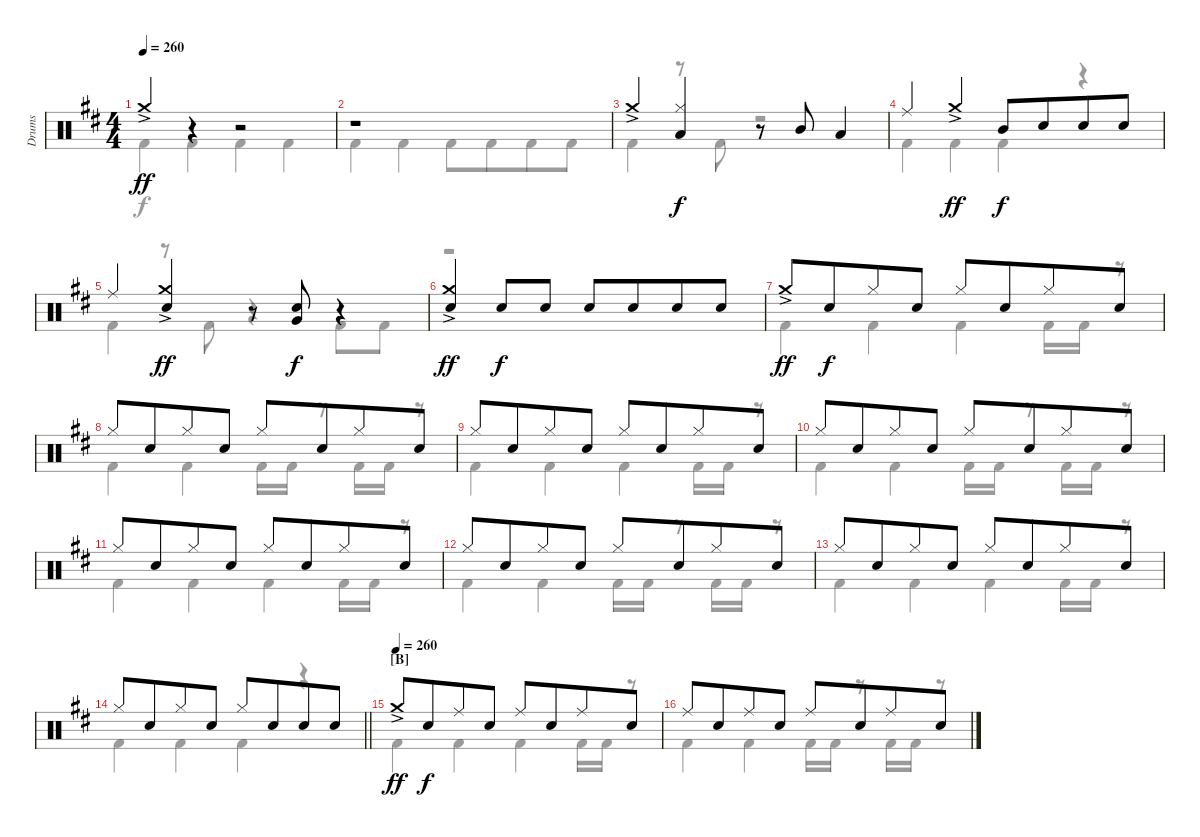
\track ("Drums" "Drums") {instrument percussion}
\staff {score}
\articulation defaults
\voice
\ts (4 4)
\tempo 260
\clef neutral
\ks bminor "Crash medium (hit)"{ac}.4{dy ff}
r.4 r.2 |
r.1 |
"Crash medium (hit)"{ac}.4 ("Hi-Hat (closed)" "Low Tom (hit)").4{dy f} r.8 "Mid Tom (hit)".8 "Low Tom (hit)".4 |
"Ride (middle)".4 "Crash medium (hit)"{ac}.4{dy ff} "Mid Tom (hit)".8{dy f} "Snare (hit) 2".8{beam merge} "Snare (hit) 2".8 "Snare (hit) 2".8 |
"Ride (middle)".4 ("Crash medium (hit)"{ac} "Snare (hit) 2").4{dy ff} r.8 ("Snare (hit) 2" "Very Low Tom (hit)").8{dy f} r.4 |
("Crash medium (hit)"{ac} "Snare (hit) 2").4{dy ff} "Snare (hit) 2".8{dy f} "Snare (hit) 2".8 "Snare (hit) 2".8 "Snare (hit) 2".8{beam merge} "Snare (hit) 2".8 "Snare (hit) 2".8 |
"Crash medium (hit)"{ac}.8{dy ff} "Snare (hit) 2".8{dy f beam merge} "Hi-Hat (closed)".8 "Snare (hit) 2".8 "Hi-Hat (closed)".8 "Snare (hit) 2".8{beam merge} "Hi-Hat (closed)".8 "Snare (hit) 2".8 |
"Hi-Hat (closed)".8 "Snare (hit) 2".8{beam merge} "Hi-Hat (closed)".8 "Snare (hit) 2".8 "Hi-Hat (closed)".8 "Snare (hit) 2".8{beam merge} "Hi-Hat (closed)".8 "Snare (hit) 2".8 |
"Hi-Hat (closed)".8 "Snare (hit) 2".8{beam merge} "Hi-Hat (closed)".8 "Snare (hit) 2".8 "Hi-Hat (closed)".8 "Snare (hit) 2".8{beam merge} "Hi-Hat (closed)".8 "Snare (hit) 2".8 |
"Hi-Hat (closed)".8 "Snare (hit) 2".8{beam merge} "Hi-Hat (closed)".8 "Snare (hit) 2".8 "Hi-Hat (closed)".8 "Snare (hit) 2".8{beam merge} "Hi-Hat (closed)".8 "Snare (hit) 2".8 |
"Hi-Hat (closed)".8 "Snare (hit) 2".8{beam merge} "Hi-Hat (closed)".8 "Snare (hit) 2".8 "Hi-Hat (closed)".8 "Snare (hit) 2".8{beam merge} "Hi-Hat (closed)".8 "Snare (hit) 2".8 |
"Hi-Hat (closed)".8 "Snare (hit) 2".8{beam merge} "Hi-Hat (closed)".8 "Snare (hit) 2".8 "Hi-Hat (closed)".8 "Snare (hit) 2".8{beam merge} "Hi-Hat (closed)".8 "Snare (hit) 2".8 |
"Hi-Hat (closed)".8 "Snare (hit) 2".8{beam merge} "Hi-Hat (closed)".8 "Snare (hit) 2".8 "Hi-Hat (closed)".8 "Snare (hit) 2".8{beam merge} "Hi-Hat (closed)".8 "Snare (hit) 2".8 |
\barLineRight lightlight "Hi-Hat (closed)".8 "Snare (hit) 2".8{beam merge} "Hi-Hat (closed)".8 "Snare (hit) 2".8 "Hi-Hat (closed)".8 "Snare (hit) 2".8{beam merge} "Snare (hit) 2".8 "Snare (hit) 2".8
|
\section ("" "[B]")
\tempo (260)
"Crash medium (hit)"{ac}.8{dy ff} "Snare (hit) 2".8{dy f beam merge} "Ride (middle)".8 "Snare (hit) 2".8 "Ride (middle)".8 "Snare (hit) 2".8{beam merge} "Ride (middle)".8 "Snare (hit) 2".8 |
"Ride (middle)".8 "Snare (hit) 2".8{beam merge} "Ride (middle)".8 "Snare (hit) 2".8 "Ride (middle)".8 "Snare (hit) 2".8{beam merge} "Ride (middle)".8 "Snare (hit) 2".8
\voice
\clef neutral
\ottava regular
\simile none
\ks bminor "Kick (hit) 2".4{dy f} "Kick (hit) 2".4 "Kick (hit) 2".4 "Kick (hit) 2".4
|
"Kick (hit) 2".4 "Kick (hit) 2".4 "Kick (hit) 2".8 "Kick (hit) 2".8{beam merge} "Kick (hit) 2".8 "Kick (hit) 2".8 |
"Kick (hit) 2".4 r.8 "Kick (hit) 2".8 r.2 |
"Kick (hit) 2".4 "Kick (hit) 2".4 "Kick (hit) 2".4 r.4 |
"Kick (hit) 2".4 r.8 "Kick (hit) 2".8 r.4 "Kick (hit) 2".8 "Kick (hit) 2".8 |
r.1 |
"Kick (hit) 2".4 "Kick (hit) 2".4 "Kick (hit) 2".4 "Kick (hit) 2".16 "Kick (hit) 2".16 r.8 |
"Kick (hit) 2".4 "Kick (hit) 2".4 "Kick (hit) 2".16 "Kick (hit) 2".16 r.8 "Kick (hit) 2".16 "Kick (hit) 2".16 r.8 |
"Kick (hit) 2".4 "Kick (hit) 2".4 "Kick (hit) 2".4 "Kick (hit) 2".16 "Kick (hit) 2".16 r.8 |
"Kick (hit) 2".4 "Kick (hit) 2".4 "Kick (hit) 2".16 "Kick (hit) 2".16 r.8 "Kick (hit) 2".16 "Kick (hit) 2".16 r.8 |
"Kick (hit) 2".4 "Kick (hit) 2".4 "Kick (hit) 2".4 "Kick (hit) 2".16 "Kick (hit) 2".16 r.8 |
"Kick (hit) 2".4 "Kick (hit) 2".4 "Kick (hit) 2".16 "Kick (hit) 2".16 r.8 "Kick (hit) 2".16 "Kick (hit) 2".16 r.8 |
"Kick (hit) 2".4 "Kick (hit) 2".4 "Kick (hit) 2".4 "Kick (hit) 2".16 "Kick (hit) 2".16 r.8 |
\barLineRight lightlight "Kick (hit) 2".4 "Kick (hit) 2".4 "Kick (hit) 2".4
r.4 |
"Kick (hit) 2".4 "Kick (hit) 2".4 "Kick (hit) 2".4 "Kick (hit) 2".16 "Kick (hit) 2".16 r.8 |
"Kick (hit) 2".4 "Kick (hit) 2".4 "Kick (hit) 2".16 "Kick (hit) 2".16 r.8 "Kick (hit) 2".16 "Kick (hit) 2".16 r.8
